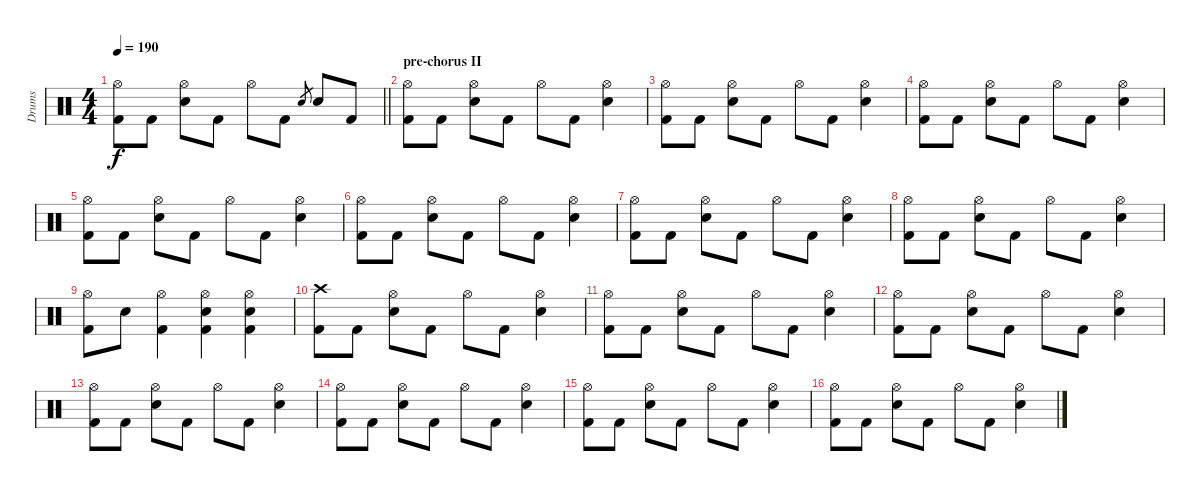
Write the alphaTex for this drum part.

\track ("Drums" "Drums") {instrument percussion}
\staff {score}
\articulation defaults
\ts (4 4)
\tempo 190
\clef neutral
\barLineRight lightlight
\ks c
("Hi-Hat (open)" "Kick (hit) 2").8{dy f} "Kick (hit) 2".8 ("Hi-Hat (open)" "Snare (hit) 2").8 "Kick (hit) 2".8 "Hi-Hat (open)".8 "Kick (hit) 2".8 "Snare (hit) 2".8{gr} "Snare (hit) 2".8 "Kick (hit) 2".8 |
\section ("" "pre-chorus II")
("Hi-Hat (open)" "Kick (hit) 2").8 "Kick (hit) 2".8 ("Hi-Hat (open)" "Snare (hit) 2").8 "Kick (hit) 2".8 "Hi-Hat (open)".8 "Kick (hit) 2".8 ("Hi-Hat (open)" "Snare (hit) 2").4 |
("Hi-Hat (open)" "Kick (hit) 2").8 "Kick (hit) 2".8 ("Hi-Hat (open)" "Snare (hit) 2").8 "Kick (hit) 2".8 "Hi-Hat (open)".8 "Kick (hit) 2".8 ("Hi-Hat (open)" "Snare (hit) 2").4 |
("Hi-Hat (open)" "Kick (hit) 2").8 "Kick (hit) 2".8 ("Hi-Hat (open)" "Snare (hit) 2").8 "Kick (hit) 2".8 "Hi-Hat (open)".8 "Kick (hit) 2".8 ("Hi-Hat (open)" "Snare (hit) 2").4 |
("Hi-Hat (open)" "Kick (hit) 2").8 "Kick (hit) 2".8 ("Hi-Hat (open)" "Snare (hit) 2").8 "Kick (hit) 2".8 "Hi-Hat (open)".8 "Kick (hit) 2".8 ("Hi-Hat (open)" "Snare (hit) 2").4 |
("Hi-Hat (open)" "Kick (hit) 2").8 "Kick (hit) 2".8 ("Hi-Hat (open)" "Snare (hit) 2").8 "Kick (hit) 2".8 "Hi-Hat (open)".8 "Kick (hit) 2".8 ("Hi-Hat (open)" "Snare (hit) 2").4 |
("Hi-Hat (open)" "Kick (hit) 2").8 "Kick (hit) 2".8 ("Hi-Hat (open)" "Snare (hit) 2").8 "Kick (hit) 2".8 "Hi-Hat (open)".8 "Kick (hit) 2".8 ("Hi-Hat (open)" "Snare (hit) 2").4 |
("Hi-Hat (open)" "Kick (hit) 2").8 "Kick (hit) 2".8 ("Hi-Hat (open)" "Snare (hit) 2").8 "Kick (hit) 2".8 "Hi-Hat (open)".8 "Kick (hit) 2".8 ("Hi-Hat (open)" "Snare (hit) 2").4 |
("Hi-Hat (open)" "Kick (hit) 2").8 "Snare (hit) 2".8 ("Hi-Hat (open)" "Kick (hit) 2").4 ("Hi-Hat (open)" "Snare (hit) 2" "Kick (hit) 2").4 ("Hi-Hat (open)" "Snare (hit) 2" "Kick (hit) 2").4 |
("Crash high (hit)" "Kick (hit) 2").8 "Kick (hit) 2".8 ("Hi-Hat (open)" "Snare (hit) 2").8 "Kick (hit) 2".8 "Hi-Hat (open)".8 "Kick (hit) 2".8 ("Hi-Hat (open)" "Snare (hit) 2").4 |
("Hi-Hat (open)" "Kick (hit) 2").8 "Kick (hit) 2".8 ("Hi-Hat (open)" "Snare (hit) 2").8 "Kick (hit) 2".8 "Hi-Hat (open)".8 "Kick (hit) 2".8 ("Hi-Hat (open)" "Snare (hit) 2").4 |
("Hi-Hat (open)" "Kick (hit) 2").8 "Kick (hit) 2".8 ("Hi-Hat (open)" "Snare (hit) 2").8 "Kick (hit) 2".8 "Hi-Hat (open)".8 "Kick (hit) 2".8 ("Hi-Hat (open)" "Snare (hit) 2").4 |
("Hi-Hat (open)" "Kick (hit) 2").8 "Kick (hit) 2".8 ("Hi-Hat (open)" "Snare (hit) 2").8 "Kick (hit) 2".8 "Hi-Hat (open)".8 "Kick (hit) 2".8 ("Hi-Hat (open)" "Snare (hit) 2").4 |
("Hi-Hat (open)" "Kick (hit) 2").8 "Kick (hit) 2".8 ("Hi-Hat (open)" "Snare (hit) 2").8 "Kick (hit) 2".8 "Hi-Hat (open)".8 "Kick (hit) 2".8 ("Hi-Hat (open)" "Snare (hit) 2").4 |
("Hi-Hat (open)" "Kick (hit) 2").8 "Kick (hit) 2".8 ("Hi-Hat (open)" "Snare (hit) 2").8 "Kick (hit) 2".8 "Hi-Hat (open)".8 "Kick (hit) 2".8 ("Hi-Hat (open)" "Snare (hit) 2").4 |
("Hi-Hat (open)" "Kick (hit) 2").8 "Kick (hit) 2".8 ("Hi-Hat (open)" "Snare (hit) 2").8 "Kick (hit) 2".8 "Hi-Hat (open)".8 "Kick (hit) 2".8 ("Hi-Hat (open)" "Snare (hit) 2").4
